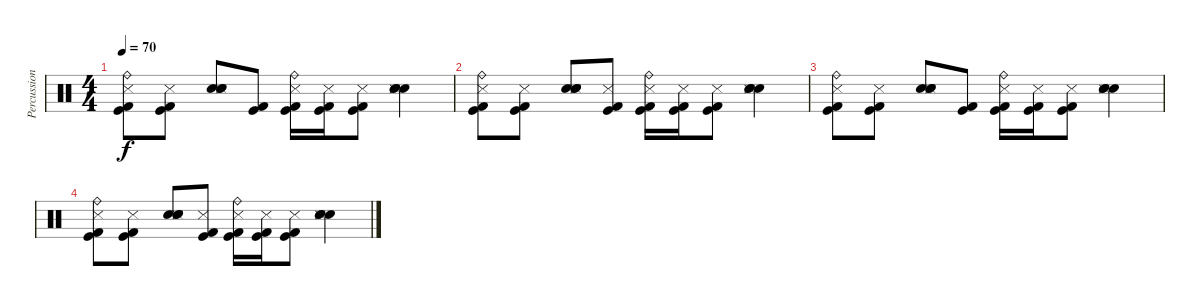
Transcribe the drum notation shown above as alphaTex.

\track ("Percussion2" "Percussion") {instrument percussion}
\staff {score}
\articulation defaults
\ts (4 4)
\tempo 70
\clef neutral
\ks c
("Kick (hit) 2" "Kick (hit)" "Snare (side stick) 3" "Ride (bell)").8{dy f} ("Kick (hit) 2" "Kick (hit)" "Snare (side stick) 3").8 ("Hand Clap (hit)" "Snare (hit) 2" "Snare (side stick) 3" "Electric Snare (hit)").8 ("Kick (hit) 2" "Kick (hit)").8 ("Kick (hit) 2" "Kick (hit)" "Snare (side stick) 3" "Ride (bell)").16 ("Kick (hit) 2" "Kick (hit)" "Snare (side stick) 3").16 ("Kick (hit) 2" "Kick (hit)" "Snare (side stick) 3").8 ("Hand Clap (hit)" "Snare (hit) 2" "Snare (side stick) 3" "Electric Snare (hit)").4 |
("Kick (hit) 2" "Kick (hit)" "Snare (side stick) 3" "Ride (bell)").8 ("Kick (hit) 2" "Kick (hit)" "Snare (side stick) 3").8 ("Snare (hit) 2" "Hand Clap (hit)" "Snare (side stick) 3" "Electric Snare (hit)").8 ("Kick (hit) 2" "Kick (hit)" "Snare (side stick) 3").8 ("Kick (hit) 2" "Kick (hit)" "Snare (side stick) 3" "Ride (bell)").16 ("Kick (hit) 2" "Kick (hit)" "Snare (side stick) 3").16 ("Kick (hit) 2" "Kick (hit)" "Snare (side stick) 3").8 ("Hand Clap (hit)" "Snare (hit) 2" "Snare (side stick) 3" "Electric Snare (hit)").4 |
("Kick (hit) 2" "Kick (hit)" "Snare (side stick) 3" "Ride (bell)").8 ("Kick (hit) 2" "Kick (hit)" "Snare (side stick) 3").8 ("Hand Clap (hit)" "Snare (hit) 2" "Snare (side stick) 3" "Electric Snare (hit)").8 ("Kick (hit) 2" "Kick (hit)").8 ("Kick (hit) 2" "Kick (hit)" "Snare (side stick) 3" "Ride (bell)").16 ("Kick (hit) 2" "Kick (hit)" "Snare (side stick) 3").16 ("Kick (hit) 2" "Kick (hit)" "Snare (side stick) 3").8 ("Hand Clap (hit)" "Snare (hit) 2" "Snare (side stick) 3" "Electric Snare (hit)").4 |
("Kick (hit) 2" "Kick (hit)" "Snare (side stick) 3" "Ride (bell)").8 ("Kick (hit) 2" "Kick (hit)" "Snare (side stick) 3").8 ("Snare (hit) 2" "Hand Clap (hit)" "Snare (side stick) 3" "Electric Snare (hit)").8 ("Kick (hit) 2" "Kick (hit)" "Snare (side stick) 3").8 ("Kick (hit) 2" "Kick (hit)" "Snare (side stick) 3" "Ride (bell)").16 ("Kick (hit) 2" "Kick (hit)" "Snare (side stick) 3").16 ("Kick (hit) 2" "Kick (hit)" "Snare (side stick) 3").8 ("Hand Clap (hit)" "Snare (hit) 2" "Snare (side stick) 3" "Electric Snare (hit)").4
